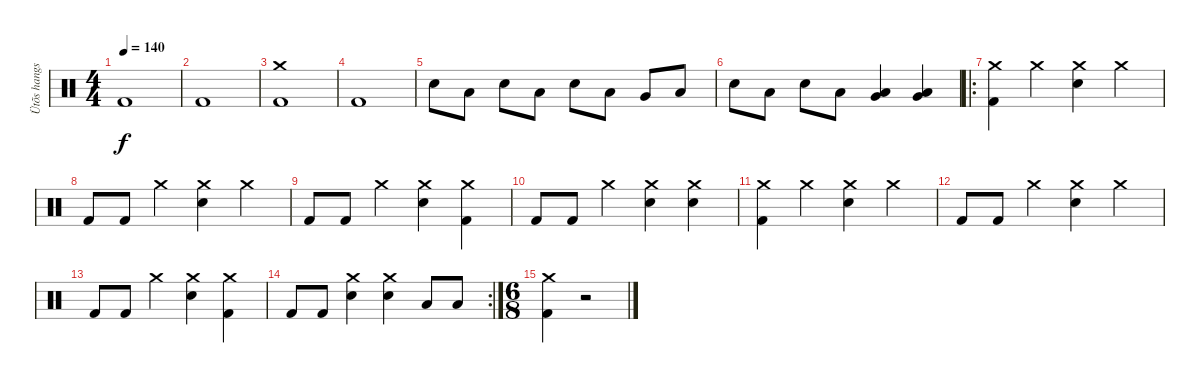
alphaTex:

\track ("Ütõs hangszer" "Ütõs hangs") {instrument percussion}
\staff {score}
\articulation defaults
\ts (4 4)
\tempo 140
\clef neutral
\ks c "Kick (hit) 2".1{dy f}
|
"Kick (hit) 2".1 |
("Crash medium (hit)" "Kick (hit) 2").1 |
"Kick (hit) 2".1 |
"Electric Snare (hit)".8 "Low Floor Tom (hit)".8 "Electric Snare (hit)".8 "Low Floor Tom (hit)".8 "Electric Snare (hit)".8 "Low Tom (hit)".8 "Very Low Tom (hit)".8 "Low Floor Tom (hit)".8 |
"Electric Snare (hit)".8 "Low Tom (hit)".8 "Electric Snare (hit)".8 "Low Tom (hit)".8 ("Very Low Tom (hit)" "Low Floor Tom (hit)").4 ("Very Low Tom (hit)" "Low Floor Tom (hit)").4 |
\ro
("Crash medium (hit)" "Kick (hit) 2").4 "Crash medium (hit)".4 ("Crash medium (hit)" "Electric Snare (hit)").4 "Crash medium (hit)".4 |
"Kick (hit) 2".8 "Kick (hit) 2".8 "Crash medium (hit)".4 ("Crash medium (hit)" "Electric Snare (hit)").4 "Crash medium (hit)".4 |
"Kick (hit) 2".8 "Kick (hit) 2".8 "Crash medium (hit)".4 ("Crash medium (hit)" "Electric Snare (hit)").4 ("Crash medium (hit)" "Kick (hit) 2").4 |
"Kick (hit) 2".8 "Kick (hit) 2".8 "Crash medium (hit)".4 ("Crash medium (hit)" "Electric Snare (hit)").4 ("Crash medium (hit)" "Electric Snare (hit)").4 |
("Crash medium (hit)" "Kick (hit) 2").4 "Crash medium (hit)".4 ("Crash medium (hit)" "Electric Snare (hit)").4 "Crash medium (hit)".4 |
"Kick (hit) 2".8 "Kick (hit) 2".8 "Crash medium (hit)".4 ("Crash medium (hit)" "Electric Snare (hit)").4 "Crash medium (hit)".4 |
"Kick (hit) 2".8 "Kick (hit) 2".8 "Crash medium (hit)".4 ("Crash medium (hit)" "Electric Snare (hit)").4 ("Crash medium (hit)" "Kick (hit) 2").4 |
\rc 2 "Kick (hit) 2".8 "Kick (hit) 2".8
("Crash medium (hit)" "Electric Snare (hit)").4 ("Crash medium (hit)" "Electric Snare (hit)").4 "Low Tom (hit)".8 "Low Floor Tom (hit)".8 |
\ts (6 8)
("Crash medium (hit)" "Kick (hit) 2").4 r.2
